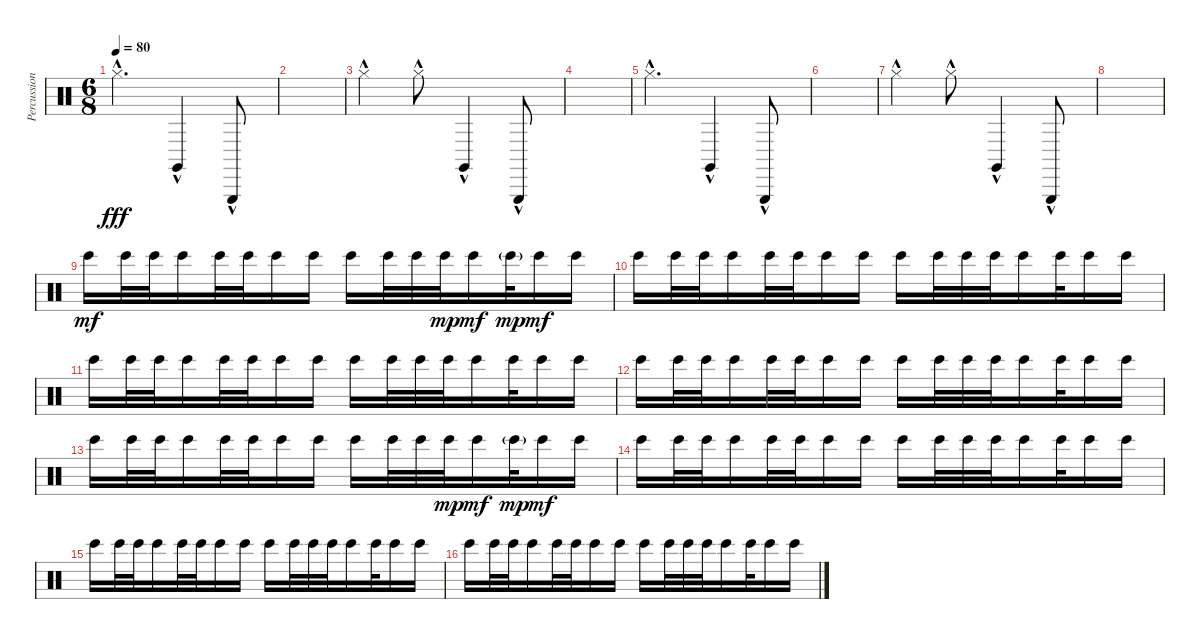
\track ("Percussion" "Percussion") {instrument percussion}
\staff {score}
\articulation defaults
\ts (6 8)
\tempo 80
\clef neutral
\ks c "Hi-Hat (closed)"{hac}.4{d dy fff} "Claves (hit)"{hac}.4 "Triangle (hit)"{hac}.8
|
|
"Hi-Hat (closed)"{hac}.4 "Hi-Hat (closed)"{hac}.8 "Claves (hit)"{hac}.4 "Triangle (hit)"{hac}.8 |
|
"Hi-Hat (closed)"{hac}.4{d} "Claves (hit)"{hac}.4 "Triangle (hit)"{hac}.8 |
|
"Hi-Hat (closed)"{hac}.4 "Hi-Hat (closed)"{hac}.8 "Claves (hit)"{hac}.4 "Triangle (hit)"{hac}.8 |
|
"Bongo High (hit)".16{dy mf} "Bongo High (hit)".32 "Bongo High (hit)".32 "Bongo High (hit)".16 "Bongo High (hit)".32 "Bongo High (hit)".32 "Bongo High (hit)".16 "Bongo High (hit)".16 "Bongo High (hit)".16 "Bongo High (hit)".32 "Bongo High (hit)".32 "Bongo High (hit)".32{dy mp} "Bongo High (hit)".16{dy mf} "Bongo High (hit)"{g}.32{dy mp} "Bongo High (hit)".16{dy mf} "Bongo High (hit)".16 |
"Bongo High (hit)".16 "Bongo High (hit)".32 "Bongo High (hit)".32 "Bongo High (hit)".16 "Bongo High (hit)".32 "Bongo High (hit)".32 "Bongo High (hit)".16 "Bongo High (hit)".16 "Bongo High (hit)".16 "Bongo High (hit)".32 "Bongo High (hit)".32 "Bongo High (hit)".32 "Bongo High (hit)".16 "Bongo High (hit)".32 "Bongo High (hit)".16 "Bongo High (hit)".16 |
"Bongo High (hit)".16 "Bongo High (hit)".32 "Bongo High (hit)".32 "Bongo High (hit)".16 "Bongo High (hit)".32 "Bongo High (hit)".32 "Bongo High (hit)".16 "Bongo High (hit)".16 "Bongo High (hit)".16 "Bongo High (hit)".32 "Bongo High (hit)".32 "Bongo High (hit)".32 "Bongo High (hit)".16 "Bongo High (hit)".32 "Bongo High (hit)".16 "Bongo High (hit)".16 |
"Bongo High (hit)".16 "Bongo High (hit)".32 "Bongo High (hit)".32 "Bongo High (hit)".16 "Bongo High (hit)".32 "Bongo High (hit)".32 "Bongo High (hit)".16 "Bongo High (hit)".16 "Bongo High (hit)".16 "Bongo High (hit)".32 "Bongo High (hit)".32 "Bongo High (hit)".32 "Bongo High (hit)".16 "Bongo High (hit)".32 "Bongo High (hit)".16 "Bongo High (hit)".16 |
"Bongo High (hit)".16 "Bongo High (hit)".32 "Bongo High (hit)".32 "Bongo High (hit)".16 "Bongo High (hit)".32 "Bongo High (hit)".32 "Bongo High (hit)".16 "Bongo High (hit)".16 "Bongo High (hit)".16 "Bongo High (hit)".32 "Bongo High (hit)".32 "Bongo High (hit)".32{dy mp} "Bongo High (hit)".16{dy mf} "Bongo High (hit)"{g}.32{dy mp} "Bongo High (hit)".16{dy mf} "Bongo High (hit)".16 |
"Bongo High (hit)".16 "Bongo High (hit)".32 "Bongo High (hit)".32 "Bongo High (hit)".16 "Bongo High (hit)".32 "Bongo High (hit)".32 "Bongo High (hit)".16 "Bongo High (hit)".16 "Bongo High (hit)".16 "Bongo High (hit)".32 "Bongo High (hit)".32 "Bongo High (hit)".32 "Bongo High (hit)".16 "Bongo High (hit)".32 "Bongo High (hit)".16 "Bongo High (hit)".16 |
"Bongo High (hit)".16 "Bongo High (hit)".32 "Bongo High (hit)".32 "Bongo High (hit)".16 "Bongo High (hit)".32 "Bongo High (hit)".32 "Bongo High (hit)".16 "Bongo High (hit)".16 "Bongo High (hit)".16 "Bongo High (hit)".32 "Bongo High (hit)".32 "Bongo High (hit)".32 "Bongo High (hit)".16 "Bongo High (hit)".32 "Bongo High (hit)".16 "Bongo High (hit)".16 |
"Bongo High (hit)".16 "Bongo High (hit)".32 "Bongo High (hit)".32 "Bongo High (hit)".16 "Bongo High (hit)".32 "Bongo High (hit)".32 "Bongo High (hit)".16 "Bongo High (hit)".16 "Bongo High (hit)".16 "Bongo High (hit)".32 "Bongo High (hit)".32 "Bongo High (hit)".32 "Bongo High (hit)".16 "Bongo High (hit)".32 "Bongo High (hit)".16 "Bongo High (hit)".16
